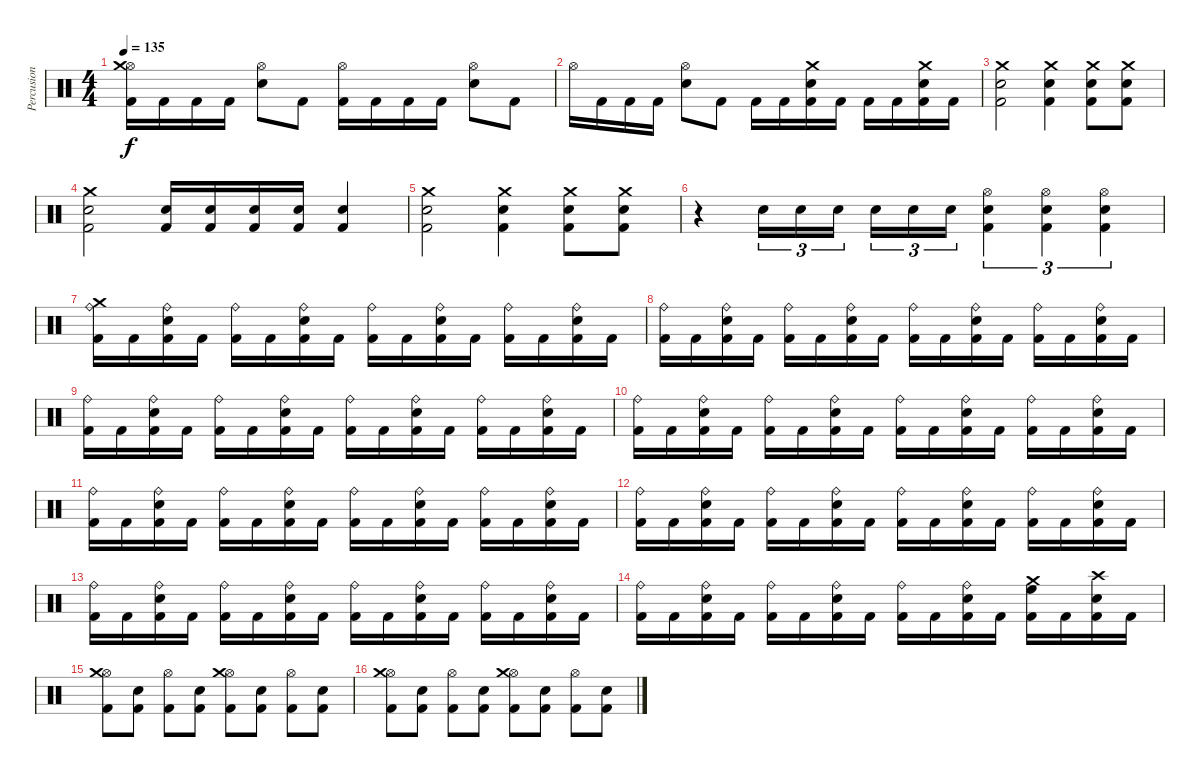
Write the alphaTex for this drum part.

\track ("Percusion" "Percusion") {instrument percussion}
\staff {score}
\articulation defaults
\ts (4 4)
\tempo 135
\clef neutral
\ks c
("Hi-Hat (open)" "Crash medium (hit)" "Kick (hit) 2").16{dy f} "Kick (hit) 2".16 "Kick (hit) 2".16 "Kick (hit) 2".16 ("Hi-Hat (open)" "Electric Snare (hit)").8 "Kick (hit) 2".8 ("Hi-Hat (open)" "Kick (hit) 2").16 "Kick (hit) 2".16 "Kick (hit) 2".16 "Kick (hit) 2".16 ("Hi-Hat (open)" "Electric Snare (hit)").8 "Kick (hit) 2".8 |
"Hi-Hat (open)".16 "Kick (hit) 2".16 "Kick (hit) 2".16 "Kick (hit) 2".16 ("Hi-Hat (open)" "Electric Snare (hit)").8 "Kick (hit) 2".8 "Kick (hit) 2".16 "Kick (hit) 2".16 ("Crash medium (hit)" "Snare (hit) 2" "Kick (hit) 2").16 "Kick (hit) 2".16 "Kick (hit) 2".16 "Kick (hit) 2".16 ("Crash medium (hit)" "Snare (hit) 2" "Kick (hit) 2").16 "Kick (hit) 2".16 |
("Crash medium (hit)" "Snare (hit) 2" "Kick (hit) 2").2 ("Crash medium (hit)" "Snare (hit) 2" "Kick (hit) 2").4 ("Crash medium (hit)" "Snare (hit) 2" "Kick (hit) 2").8 ("Crash medium (hit)" "Snare (hit) 2" "Kick (hit) 2").8 |
("Crash medium (hit)" "Snare (hit) 2" "Kick (hit) 2").2 ("Electric Snare (hit)" "Kick (hit) 2").16 ("Electric Snare (hit)" "Kick (hit) 2").16 ("Electric Snare (hit)" "Kick (hit) 2").16 ("Electric Snare (hit)" "Kick (hit) 2").16 ("Snare (hit) 2" "Kick (hit) 2").4 |
("Crash medium (hit)" "Snare (hit) 2" "Kick (hit) 2").2 ("Crash medium (hit)" "Snare (hit) 2" "Kick (hit) 2").4 ("Crash medium (hit)" "Snare (hit) 2" "Kick (hit) 2").8 ("Crash medium (hit)" "Snare (hit) 2" "Kick (hit) 2").8 |
r.4 "Snare (hit) 2".16{tu (3 2)} "Snare (hit) 2".16{tu (3 2)} "Snare (hit) 2".16{tu (3 2)} "Snare (hit) 2".16{tu (3 2)} "Snare (hit) 2".16{tu (3 2)} "Snare (hit) 2".16{tu (3 2)} ("Hi-Hat (open)" "Snare (hit) 2" "Kick (hit) 2").4{tu (3 2)} ("Hi-Hat (open)" "Snare (hit) 2" "Kick (hit) 2").4{tu (3 2)} ("Hi-Hat (open)" "Snare (hit) 2" "Kick (hit) 2").4{tu (3 2)} |
("Ride (bell)" "Crash medium (hit)" "Kick (hit) 2").16 "Kick (hit) 2".16 ("Ride (bell)" "Snare (hit) 2" "Kick (hit) 2").16 "Kick (hit) 2".16 ("Ride (bell)" "Kick (hit) 2").16 "Kick (hit) 2".16 ("Ride (bell)" "Snare (hit) 2" "Kick (hit) 2").16 "Kick (hit) 2".16 ("Ride (bell)" "Kick (hit) 2").16 "Kick (hit) 2".16 ("Ride (bell)" "Snare (hit) 2" "Kick (hit) 2").16 "Kick (hit) 2".16 ("Ride (bell)" "Kick (hit) 2").16 "Kick (hit) 2".16 ("Ride (bell)" "Snare (hit) 2" "Kick (hit) 2").16 "Kick (hit) 2".16 |
("Ride (bell)" "Kick (hit) 2").16 "Kick (hit) 2".16 ("Ride (bell)" "Snare (hit) 2" "Kick (hit) 2").16 "Kick (hit) 2".16 ("Ride (bell)" "Kick (hit) 2").16 "Kick (hit) 2".16 ("Ride (bell)" "Snare (hit) 2" "Kick (hit) 2").16 "Kick (hit) 2".16 ("Ride (bell)" "Kick (hit) 2").16 "Kick (hit) 2".16 ("Ride (bell)" "Snare (hit) 2" "Kick (hit) 2").16 "Kick (hit) 2".16 ("Ride (bell)" "Kick (hit) 2").16 "Kick (hit) 2".16 ("Ride (bell)" "Snare (hit) 2" "Kick (hit) 2").16 "Kick (hit) 2".16 |
("Ride (bell)" "Kick (hit) 2").16 "Kick (hit) 2".16 ("Ride (bell)" "Snare (hit) 2" "Kick (hit) 2").16 "Kick (hit) 2".16 ("Ride (bell)" "Kick (hit) 2").16 "Kick (hit) 2".16 ("Ride (bell)" "Snare (hit) 2" "Kick (hit) 2").16 "Kick (hit) 2".16 ("Ride (bell)" "Kick (hit) 2").16 "Kick (hit) 2".16 ("Ride (bell)" "Snare (hit) 2" "Kick (hit) 2").16 "Kick (hit) 2".16 ("Ride (bell)" "Kick (hit) 2").16 "Kick (hit) 2".16 ("Ride (bell)" "Snare (hit) 2" "Kick (hit) 2").16 "Kick (hit) 2".16 |
("Ride (bell)" "Kick (hit) 2").16 "Kick (hit) 2".16 ("Ride (bell)" "Snare (hit) 2" "Kick (hit) 2").16 "Kick (hit) 2".16 ("Ride (bell)" "Kick (hit) 2").16 "Kick (hit) 2".16 ("Ride (bell)" "Snare (hit) 2" "Kick (hit) 2").16 "Kick (hit) 2".16 ("Ride (bell)" "Kick (hit) 2").16 "Kick (hit) 2".16 ("Ride (bell)" "Snare (hit) 2" "Kick (hit) 2").16 "Kick (hit) 2".16 ("Ride (bell)" "Kick (hit) 2").16 "Kick (hit) 2".16 ("Ride (bell)" "Snare (hit) 2" "Kick (hit) 2").16 "Kick (hit) 2".16 |
("Ride (bell)" "Kick (hit) 2").16 "Kick (hit) 2".16 ("Ride (bell)" "Snare (hit) 2" "Kick (hit) 2").16 "Kick (hit) 2".16 ("Ride (bell)" "Kick (hit) 2").16 "Kick (hit) 2".16 ("Ride (bell)" "Snare (hit) 2" "Kick (hit) 2").16 "Kick (hit) 2".16 ("Ride (bell)" "Kick (hit) 2").16 "Kick (hit) 2".16 ("Ride (bell)" "Snare (hit) 2" "Kick (hit) 2").16 "Kick (hit) 2".16 ("Ride (bell)" "Kick (hit) 2").16 "Kick (hit) 2".16 ("Ride (bell)" "Snare (hit) 2" "Kick (hit) 2").16 "Kick (hit) 2".16 |
("Ride (bell)" "Kick (hit) 2").16 "Kick (hit) 2".16 ("Ride (bell)" "Snare (hit) 2" "Kick (hit) 2").16 "Kick (hit) 2".16 ("Ride (bell)" "Kick (hit) 2").16 "Kick (hit) 2".16 ("Ride (bell)" "Snare (hit) 2" "Kick (hit) 2").16 "Kick (hit) 2".16 ("Ride (bell)" "Kick (hit) 2").16 "Kick (hit) 2".16 ("Ride (bell)" "Snare (hit) 2" "Kick (hit) 2").16 "Kick (hit) 2".16 ("Ride (bell)" "Kick (hit) 2").16 "Kick (hit) 2".16 ("Ride (bell)" "Snare (hit) 2" "Kick (hit) 2").16 "Kick (hit) 2".16 |
("Ride (bell)" "Kick (hit) 2").16 "Kick (hit) 2".16 ("Ride (bell)" "Snare (hit) 2" "Kick (hit) 2").16 "Kick (hit) 2".16 ("Ride (bell)" "Kick (hit) 2").16 "Kick (hit) 2".16 ("Ride (bell)" "Snare (hit) 2" "Kick (hit) 2").16 "Kick (hit) 2".16 ("Ride (bell)" "Kick (hit) 2").16 "Kick (hit) 2".16 ("Ride (bell)" "Snare (hit) 2" "Kick (hit) 2").16 "Kick (hit) 2".16 ("Ride (bell)" "Kick (hit) 2").16 "Kick (hit) 2".16 ("Ride (bell)" "Snare (hit) 2" "Kick (hit) 2").16 "Kick (hit) 2".16 |
("Ride (bell)" "Kick (hit) 2").16 "Kick (hit) 2".16 ("Ride (bell)" "Snare (hit) 2" "Kick (hit) 2").16 "Kick (hit) 2".16 ("Ride (bell)" "Kick (hit) 2").16 "Kick (hit) 2".16 ("Ride (bell)" "Snare (hit) 2" "Kick (hit) 2").16 "Kick (hit) 2".16 ("Ride (bell)" "Kick (hit) 2").16 "Kick (hit) 2".16 ("Ride (bell)" "Snare (hit) 2" "Kick (hit) 2").16 "Kick (hit) 2".16 ("Crash medium (hit)" "High Floor Tom (hit)" "Kick (hit) 2").16 "Kick (hit) 2".16 ("Crash high (hit)" "Snare (hit) 2" "Kick (hit) 2").16 "Kick (hit) 2".16 |
("Hi-Hat (open)" "Crash medium (hit)" "Kick (hit) 2").8 ("Snare (hit) 2" "Kick (hit) 2").8 ("Hi-Hat (open)" "Kick (hit) 2").8 ("Snare (hit) 2" "Kick (hit) 2").8 ("Hi-Hat (open)" "Crash medium (hit)" "Kick (hit) 2").8 ("Snare (hit) 2" "Kick (hit) 2").8 ("Hi-Hat (open)" "Kick (hit) 2").8 ("Snare (hit) 2" "Kick (hit) 2").8 |
("Hi-Hat (open)" "Crash medium (hit)" "Kick (hit) 2").8 ("Snare (hit) 2" "Kick (hit) 2").8 ("Hi-Hat (open)" "Kick (hit) 2").8 ("Snare (hit) 2" "Kick (hit) 2").8 ("Hi-Hat (open)" "Crash medium (hit)" "Kick (hit) 2").8 ("Snare (hit) 2" "Kick (hit) 2").8 ("Hi-Hat (open)" "Kick (hit) 2").8 ("Snare (hit) 2" "Kick (hit) 2").8
